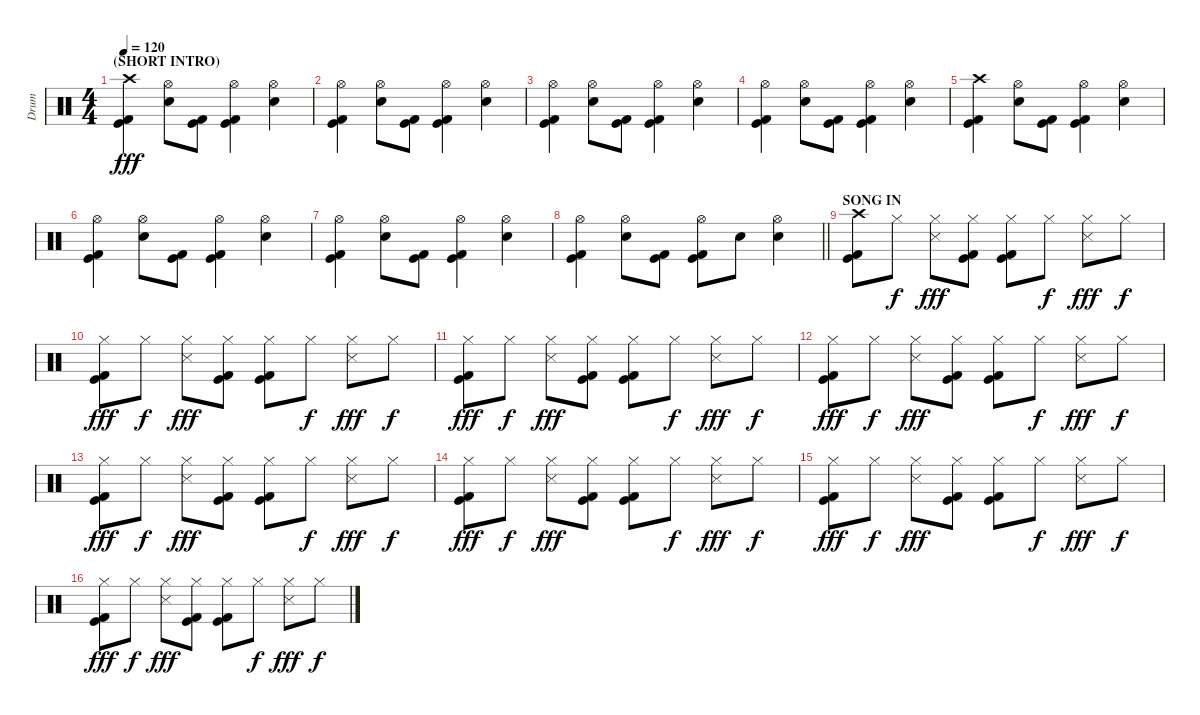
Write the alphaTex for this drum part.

\track ("Drum" "Drum") {instrument percussion}
\staff {score}
\articulation defaults
\ts (4 4)
\section ("" "(SHORT INTRO)")
\tempo 120
\clef neutral
\ks c
("Kick (hit)" "Kick (hit) 2" "Crash high (hit)").4{dy fff} ("Snare (hit) 2" "Hi-Hat (open)").8 ("Kick (hit)" "Kick (hit) 2").8 ("Kick (hit)" "Kick (hit) 2" "Hi-Hat (open)").4 ("Snare (hit) 2" "Hi-Hat (open)").4 |
("Kick (hit)" "Kick (hit) 2" "Hi-Hat (open)").4 ("Snare (hit) 2" "Hi-Hat (open)").8 ("Kick (hit)" "Kick (hit) 2").8 ("Kick (hit)" "Kick (hit) 2" "Hi-Hat (open)").4 ("Snare (hit) 2" "Hi-Hat (open)").4 |
("Kick (hit)" "Kick (hit) 2" "Hi-Hat (open)").4 ("Snare (hit) 2" "Hi-Hat (open)").8 ("Kick (hit)" "Kick (hit) 2").8 ("Kick (hit)" "Kick (hit) 2" "Hi-Hat (open)").4 ("Snare (hit) 2" "Hi-Hat (open)").4 |
("Kick (hit)" "Kick (hit) 2" "Hi-Hat (open)").4 ("Snare (hit) 2" "Hi-Hat (open)").8 ("Kick (hit)" "Kick (hit) 2").8 ("Kick (hit)" "Kick (hit) 2" "Hi-Hat (open)").4 ("Snare (hit) 2" "Hi-Hat (open)").4 |
("Kick (hit)" "Kick (hit) 2" "Crash high (hit)").4 ("Snare (hit) 2" "Hi-Hat (open)").8 ("Kick (hit)" "Kick (hit) 2").8 ("Kick (hit)" "Kick (hit) 2" "Hi-Hat (open)").4 ("Snare (hit) 2" "Hi-Hat (open)").4 |
("Kick (hit)" "Kick (hit) 2" "Hi-Hat (open)").4 ("Snare (hit) 2" "Hi-Hat (open)").8 ("Kick (hit)" "Kick (hit) 2").8 ("Kick (hit)" "Kick (hit) 2" "Hi-Hat (open)").4 ("Snare (hit) 2" "Hi-Hat (open)").4 |
("Kick (hit)" "Kick (hit) 2" "Hi-Hat (open)").4 ("Snare (hit) 2" "Hi-Hat (open)").8 ("Kick (hit)" "Kick (hit) 2").8 ("Kick (hit)" "Kick (hit) 2" "Hi-Hat (open)").4 ("Snare (hit) 2" "Hi-Hat (open)").4 |
\barLineRight lightlight
("Kick (hit)" "Kick (hit) 2" "Hi-Hat (open)").4 ("Snare (hit) 2" "Hi-Hat (open)").8 ("Kick (hit)" "Kick (hit) 2").8 ("Kick (hit)" "Kick (hit) 2" "Hi-Hat (open)").8 "Snare (hit) 2".8 ("Snare (hit) 2" "Hi-Hat (open)").4 |
\section ("" "SONG IN")
("Kick (hit)" "Kick (hit) 2" "Crash high (hit)").8 "Hi-Hat (closed)".8{dy f} ("Snare (side stick) 3" "Hi-Hat (closed)").8{dy fff} ("Kick (hit)" "Kick (hit) 2" "Hi-Hat (closed)").8 ("Kick (hit)" "Kick (hit) 2" "Hi-Hat (closed)").8 "Hi-Hat (closed)".8{dy f} ("Snare (side stick) 3" "Hi-Hat (closed)").8{dy fff} "Hi-Hat (closed)".8{dy f} |
("Kick (hit)" "Kick (hit) 2" "Hi-Hat (closed)").8{dy fff} "Hi-Hat (closed)".8{dy f} ("Snare (side stick) 3" "Hi-Hat (closed)").8{dy fff} ("Kick (hit)" "Kick (hit) 2" "Hi-Hat (closed)").8 ("Kick (hit)" "Kick (hit) 2" "Hi-Hat (closed)").8 "Hi-Hat (closed)".8{dy f} ("Snare (side stick) 3" "Hi-Hat (closed)").8{dy fff} "Hi-Hat (closed)".8{dy f} |
("Kick (hit)" "Kick (hit) 2" "Hi-Hat (closed)").8{dy fff} "Hi-Hat (closed)".8{dy f} ("Snare (side stick) 3" "Hi-Hat (closed)").8{dy fff} ("Kick (hit)" "Kick (hit) 2" "Hi-Hat (closed)").8 ("Kick (hit)" "Kick (hit) 2" "Hi-Hat (closed)").8 "Hi-Hat (closed)".8{dy f} ("Snare (side stick) 3" "Hi-Hat (closed)").8{dy fff} "Hi-Hat (closed)".8{dy f} |
("Kick (hit)" "Kick (hit) 2" "Hi-Hat (closed)").8{dy fff} "Hi-Hat (closed)".8{dy f} ("Snare (side stick) 3" "Hi-Hat (closed)").8{dy fff} ("Kick (hit)" "Kick (hit) 2" "Hi-Hat (closed)").8 ("Kick (hit)" "Kick (hit) 2" "Hi-Hat (closed)").8 "Hi-Hat (closed)".8{dy f} ("Snare (side stick) 3" "Hi-Hat (closed)").8{dy fff} "Hi-Hat (closed)".8{dy f} |
("Kick (hit)" "Kick (hit) 2" "Hi-Hat (closed)").8{dy fff} "Hi-Hat (closed)".8{dy f} ("Snare (side stick) 3" "Hi-Hat (closed)").8{dy fff} ("Kick (hit)" "Kick (hit) 2" "Hi-Hat (closed)").8 ("Kick (hit)" "Kick (hit) 2" "Hi-Hat (closed)").8 "Hi-Hat (closed)".8{dy f} ("Snare (side stick) 3" "Hi-Hat (closed)").8{dy fff} "Hi-Hat (closed)".8{dy f} |
("Kick (hit)" "Kick (hit) 2" "Hi-Hat (closed)").8{dy fff} "Hi-Hat (closed)".8{dy f} ("Snare (side stick) 3" "Hi-Hat (closed)").8{dy fff} ("Kick (hit)" "Kick (hit) 2" "Hi-Hat (closed)").8 ("Kick (hit)" "Kick (hit) 2" "Hi-Hat (closed)").8 "Hi-Hat (closed)".8{dy f} ("Snare (side stick) 3" "Hi-Hat (closed)").8{dy fff} "Hi-Hat (closed)".8{dy f} |
("Kick (hit)" "Kick (hit) 2" "Hi-Hat (closed)").8{dy fff} "Hi-Hat (closed)".8{dy f} ("Snare (side stick) 3" "Hi-Hat (closed)").8{dy fff} ("Kick (hit)" "Kick (hit) 2" "Hi-Hat (closed)").8 ("Kick (hit)" "Kick (hit) 2" "Hi-Hat (closed)").8 "Hi-Hat (closed)".8{dy f} ("Snare (side stick) 3" "Hi-Hat (closed)").8{dy fff} "Hi-Hat (closed)".8{dy f} |
("Kick (hit)" "Kick (hit) 2" "Hi-Hat (closed)").8{dy fff} "Hi-Hat (closed)".8{dy f} ("Snare (side stick) 3" "Hi-Hat (closed)").8{dy fff} ("Kick (hit)" "Kick (hit) 2" "Hi-Hat (closed)").8 ("Kick (hit)" "Kick (hit) 2" "Hi-Hat (closed)").8 "Hi-Hat (closed)".8{dy f} ("Snare (side stick) 3" "Hi-Hat (closed)").8{dy fff} "Hi-Hat (closed)".8{dy f}
